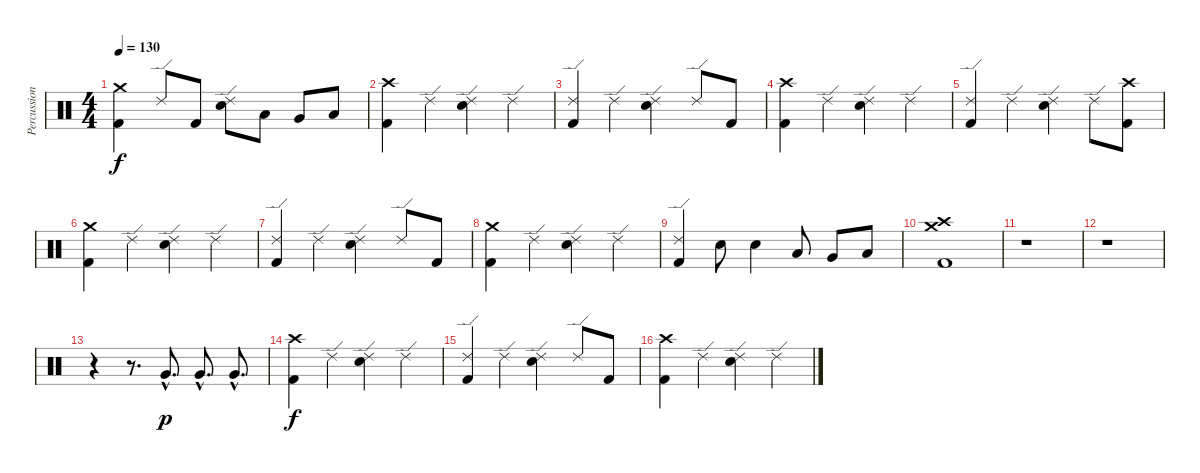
\track ("Percussion" "Percussion") {instrument percussion}
\staff {score}
\articulation defaults
\ts (4 4)
\tempo 130
\clef neutral
\ks c
("Crash medium (hit)" "Kick (hit) 2").4{dy f} "Ride (edge) 2".8 "Kick (hit) 2".8 ("Ride (edge) 2" "Electric Snare (hit)").8 "Low Tom (hit)".8 "Very Low Tom (hit)".8 "Low Floor Tom (hit)".8 |
("Crash high (hit)" "Kick (hit) 2").4 "Ride (edge) 2".4 ("Ride (edge) 2" "Electric Snare (hit)").4 "Ride (edge) 2".4 |
("Ride (edge) 2" "Kick (hit) 2").4 "Ride (edge) 2".4 ("Ride (edge) 2" "Electric Snare (hit)").4 "Ride (edge) 2".8 "Kick (hit) 2".8 |
("Crash high (hit)" "Kick (hit) 2").4 "Ride (edge) 2".4 ("Ride (edge) 2" "Electric Snare (hit)").4 "Ride (edge) 2".4 |
("Ride (edge) 2" "Kick (hit) 2").4 "Ride (edge) 2".4 ("Ride (edge) 2" "Electric Snare (hit)").4 "Ride (edge) 2".8 ("Crash high (hit)" "Kick (hit) 2").8 |
("Crash medium (hit)" "Kick (hit) 2").4 "Ride (edge) 2".4 ("Ride (edge) 2" "Electric Snare (hit)").4 "Ride (edge) 2".4 |
("Ride (edge) 2" "Kick (hit) 2").4 "Ride (edge) 2".4 ("Ride (edge) 2" "Electric Snare (hit)").4 "Ride (edge) 2".8 "Kick (hit) 2".8 |
("Crash medium (hit)" "Kick (hit) 2").4 "Ride (edge) 2".4 ("Ride (edge) 2" "Electric Snare (hit)").4 "Ride (edge) 2".4 |
("Ride (edge) 2" "Kick (hit) 2").4 "Electric Snare (hit)".8 "Electric Snare (hit)".4 "Low Tom (hit)".8 "Very Low Tom (hit)".8 "Low Floor Tom (hit)".8 |
("Crash medium (hit)" "Crash high (hit)" "Kick (hit) 2").1 |
r.1 |
r.1 |
r.4 r.8{d} "Very Low Tom (hit)"{hac}.8{d dy p} "Very Low Tom (hit)"{hac}.8{d} "Very Low Tom (hit)"{hac}.8{d} |
("Crash high (hit)" "Kick (hit) 2").4{dy f} "Ride (edge) 2".4 ("Ride (edge) 2" "Electric Snare (hit)").4 "Ride (edge) 2".4 |
("Ride (edge) 2" "Kick (hit) 2").4 "Ride (edge) 2".4 ("Ride (edge) 2" "Electric Snare (hit)").4 "Ride (edge) 2".8 "Kick (hit) 2".8 |
("Crash high (hit)" "Kick (hit) 2").4 "Ride (edge) 2".4 ("Ride (edge) 2" "Electric Snare (hit)").4 "Ride (edge) 2".4
